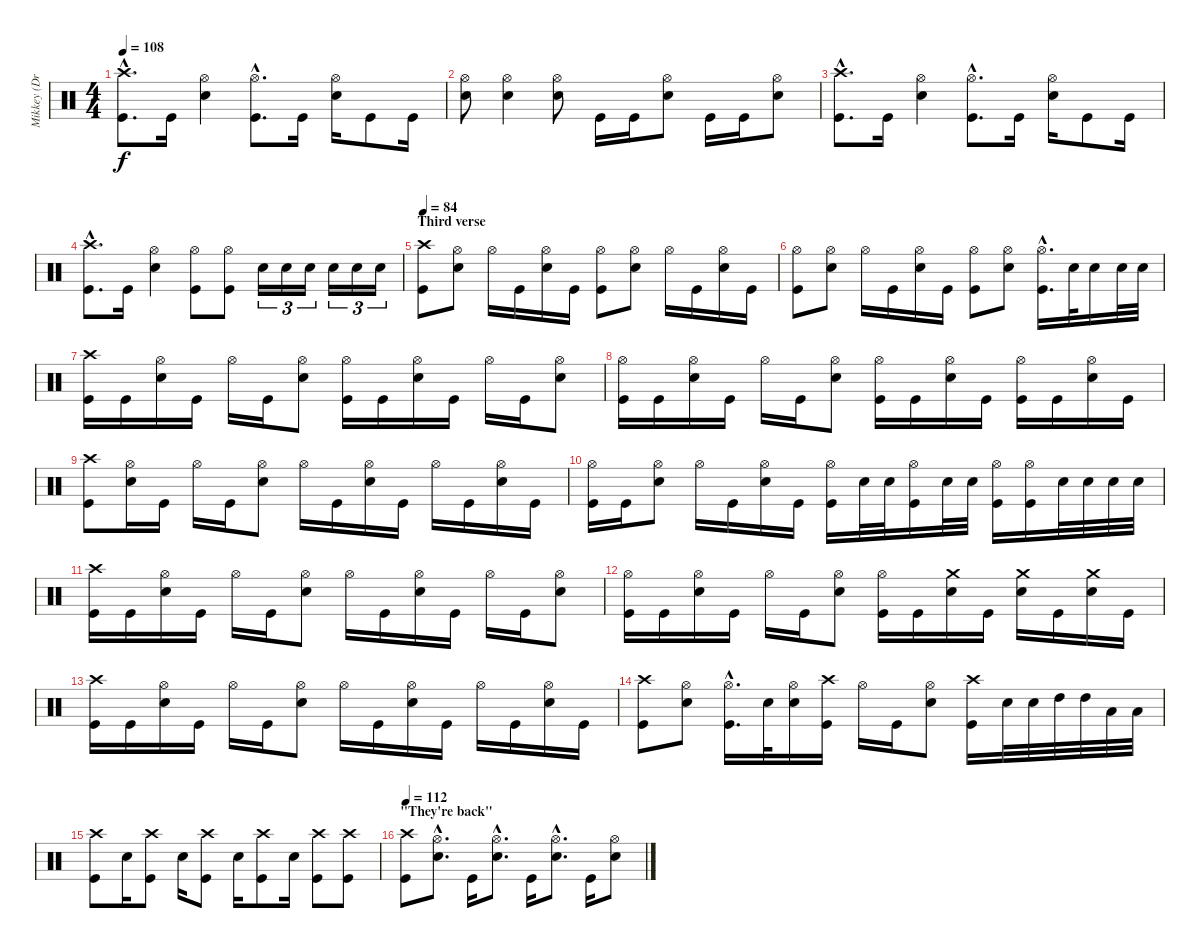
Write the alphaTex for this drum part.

\track ("Mikkey (Drums)" "Mikkey (Dr") {instrument percussion}
\staff {score}
\articulation defaults
\ts (4 4)
\tempo 108
\clef neutral
\ks c
("Crash high (hit)"{hac} "Kick (hit)"{hac}).8{d dy f} "Kick (hit)".16 ("Hi-Hat (open)" "Electric Snare (hit)").4 ("Hi-Hat (open)"{hac} "Kick (hit)"{hac}).8{d} "Kick (hit)".16 ("Hi-Hat (open)" "Electric Snare (hit)").16 "Kick (hit)".8 "Kick (hit)".16 |
("Hi-Hat (open)" "Electric Snare (hit)").8 ("Hi-Hat (open)" "Electric Snare (hit)").4 ("Hi-Hat (open)" "Electric Snare (hit)").8 "Kick (hit)".16 "Kick (hit)".16 ("Hi-Hat (open)" "Electric Snare (hit)").8 "Kick (hit)".16 "Kick (hit)".16 ("Hi-Hat (open)" "Electric Snare (hit)").8 |
("Crash high (hit)"{hac} "Kick (hit)"{hac}).8{d} "Kick (hit)".16 ("Hi-Hat (open)" "Electric Snare (hit)").4 ("Hi-Hat (open)"{hac} "Kick (hit)"{hac}).8{d} "Kick (hit)".16 ("Hi-Hat (open)" "Electric Snare (hit)").16 "Kick (hit)".8 "Kick (hit)".16 |
("Crash high (hit)"{hac} "Kick (hit)"{hac}).8{d} "Kick (hit)".16 ("Hi-Hat (open)" "Electric Snare (hit)").4 ("Hi-Hat (open)" "Kick (hit)").8 ("Hi-Hat (open)" "Kick (hit)").8 "Electric Snare (hit)".16{tu (3 2)} "Electric Snare (hit)".16{tu (3 2)} "Electric Snare (hit)".16{tu (3 2)} "Electric Snare (hit)".16{tu (3 2)} "Electric Snare (hit)".16{tu (3 2)} "Electric Snare (hit)".16{tu (3 2)} |
\section ("" "Third verse")
\tempo 84
("Crash high (hit)" "Kick (hit)").8 ("Hi-Hat (open)" "Electric Snare (hit)").8 "Hi-Hat (open)".16 "Kick (hit)".16 ("Hi-Hat (open)" "Electric Snare (hit)").16 "Kick (hit)".16 ("Hi-Hat (open)" "Kick (hit)").8 ("Hi-Hat (open)" "Electric Snare (hit)").8 "Hi-Hat (open)".16 "Kick (hit)".16 ("Hi-Hat (open)" "Electric Snare (hit)").16 "Kick (hit)".16 |
("Hi-Hat (open)" "Kick (hit)").8 ("Hi-Hat (open)" "Electric Snare (hit)").8 "Hi-Hat (open)".16 "Kick (hit)".16 ("Hi-Hat (open)" "Electric Snare (hit)").16 "Kick (hit)".16 ("Hi-Hat (open)" "Kick (hit)").8 ("Hi-Hat (open)" "Electric Snare (hit)").8 ("Hi-Hat (open)"{hac} "Kick (hit)"{hac}).16{d} "Electric Snare (hit)".32 "Electric Snare (hit)".16 "Electric Snare (hit)".32 "Electric Snare (hit)".32 |
("Crash high (hit)" "Kick (hit)").16 "Kick (hit)".16 ("Hi-Hat (open)" "Electric Snare (hit)").16 "Kick (hit)".16 "Hi-Hat (open)".16 "Kick (hit)".16 ("Hi-Hat (open)" "Electric Snare (hit)").8 ("Hi-Hat (open)" "Kick (hit)").16 "Kick (hit)".16 ("Hi-Hat (open)" "Electric Snare (hit)").16 "Kick (hit)".16 "Hi-Hat (open)".16 "Kick (hit)".16 ("Hi-Hat (open)" "Electric Snare (hit)").8 |
("Hi-Hat (open)" "Kick (hit)").16 "Kick (hit)".16 ("Hi-Hat (open)" "Electric Snare (hit)").16 "Kick (hit)".16 "Hi-Hat (open)".16 "Kick (hit)".16 ("Hi-Hat (open)" "Electric Snare (hit)").8 ("Hi-Hat (open)" "Kick (hit)").16 "Kick (hit)".16 ("Hi-Hat (open)" "Electric Snare (hit)").16 "Kick (hit)".16 ("Hi-Hat (open)" "Kick (hit)").16 "Kick (hit)".16 ("Hi-Hat (open)" "Electric Snare (hit)").16 "Kick (hit)".16 |
("Crash high (hit)" "Kick (hit)").8 ("Hi-Hat (open)" "Electric Snare (hit)").16 "Kick (hit)".16 "Hi-Hat (open)".16 "Kick (hit)".16 ("Hi-Hat (open)" "Electric Snare (hit)").8 "Hi-Hat (open)".16 "Kick (hit)".16 ("Hi-Hat (open)" "Electric Snare (hit)").16 "Kick (hit)".16 "Hi-Hat (open)".16 "Kick (hit)".16 ("Hi-Hat (open)" "Electric Snare (hit)").16 "Kick (hit)".16 |
("Hi-Hat (open)" "Kick (hit)").16 "Kick (hit)".16 ("Hi-Hat (open)" "Electric Snare (hit)").8 "Hi-Hat (open)".16 "Kick (hit)".16 ("Hi-Hat (open)" "Electric Snare (hit)").16 "Kick (hit)".16 ("Hi-Hat (open)" "Kick (hit)").16 "Electric Snare (hit)".32 "Electric Snare (hit)".32 ("Hi-Hat (open)" "Kick (hit)").16 "Electric Snare (hit)".32 "Electric Snare (hit)".32 ("Hi-Hat (open)" "Kick (hit)").16 ("Hi-Hat (open)" "Kick (hit)").16 "Electric Snare (hit)".32 "Electric Snare (hit)".32 "Electric Snare (hit)".32 "Electric Snare (hit)".32 |
("Crash high (hit)" "Kick (hit)").16 "Kick (hit)".16 ("Hi-Hat (open)" "Electric Snare (hit)").16 "Kick (hit)".16 "Hi-Hat (open)".16 "Kick (hit)".16 ("Hi-Hat (open)" "Electric Snare (hit)").8 "Hi-Hat (open)".16 "Kick (hit)".16 ("Hi-Hat (open)" "Electric Snare (hit)").16 "Kick (hit)".16 "Hi-Hat (open)".16 "Kick (hit)".16 ("Hi-Hat (open)" "Electric Snare (hit)").8 |
("Hi-Hat (open)" "Kick (hit)").16 "Kick (hit)".16 ("Hi-Hat (open)" "Electric Snare (hit)").16 "Kick (hit)".16 "Hi-Hat (open)".16 "Kick (hit)".16 ("Hi-Hat (open)" "Electric Snare (hit)").8 ("Hi-Hat (open)" "Kick (hit)").16 "Kick (hit)".16 ("Crash medium (hit)" "Electric Snare (hit)").16 "Kick (hit)".16 ("Crash medium (hit)" "Electric Snare (hit)").16 "Kick (hit)".16 ("Crash medium (hit)" "Electric Snare (hit)").16 "Kick (hit)".16 |
("Crash high (hit)" "Kick (hit)").16 "Kick (hit)".16 ("Hi-Hat (open)" "Electric Snare (hit)").16 "Kick (hit)".16 "Hi-Hat (open)".16 "Kick (hit)".16 ("Hi-Hat (open)" "Electric Snare (hit)").8 "Hi-Hat (open)".16 "Kick (hit)".16 ("Hi-Hat (open)" "Electric Snare (hit)").16 "Kick (hit)".16 "Hi-Hat (open)".16 "Kick (hit)".16 ("Hi-Hat (open)" "Electric Snare (hit)").16 "Kick (hit)".16 |
("Crash high (hit)" "Kick (hit)").8 ("Hi-Hat (open)" "Electric Snare (hit)").8 ("Hi-Hat (open)"{hac} "Kick (hit)"{hac}).16{d} "Electric Snare (hit)".32 ("Hi-Hat (open)" "Electric Snare (hit)").16 ("Crash high (hit)" "Kick (hit)").16 "Hi-Hat (open)".16 "Kick (hit)".16 ("Hi-Hat (open)" "Electric Snare (hit)").8 ("Crash high (hit)" "Kick (hit)").16 "Electric Snare (hit)".32 "Electric Snare (hit)".32 "High Tom (hit)".32 "High Tom (hit)".32 "Low Tom (hit)".32 "Low Tom (hit)".32 |
("Crash high (hit)" "Kick (hit)").8 "Electric Snare (hit)".16 ("Crash high (hit)" "Kick (hit)").8 "Electric Snare (hit)".16 ("Crash high (hit)" "Kick (hit)").8 "Electric Snare (hit)".16 ("Crash high (hit)" "Kick (hit)").8 "Electric Snare (hit)".16 ("Crash high (hit)" "Kick (hit)").8 ("Crash high (hit)" "Kick (hit)").8 |
\section ("" "\"They're back\"")
\tempo 112
("Crash high (hit)" "Kick (hit)").8 ("Hi-Hat (open)"{hac} "Electric Snare (hit)"{hac}).8{d} "Kick (hit)".16 ("Hi-Hat (open)"{hac} "Electric Snare (hit)"{hac}).8{d} "Kick (hit)".16 ("Hi-Hat (open)"{hac} "Electric Snare (hit)"{hac}).8{d} "Kick (hit)".16 ("Hi-Hat (open)" "Electric Snare (hit)").8
